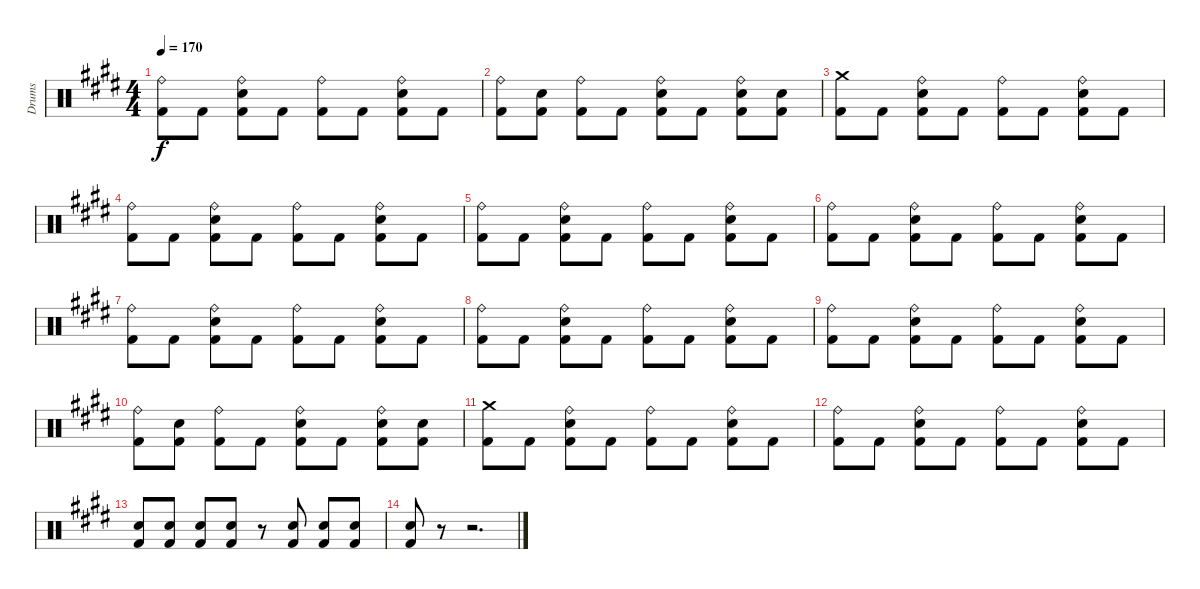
\track ("Drums" "Drums") {instrument percussion}
\staff {score}
\articulation defaults
\ts (4 4)
\tempo 170
\clef neutral
\ks c#minor
("Ride (bell)" "Kick (hit) 2").8{dy f} "Kick (hit) 2".8 ("Ride (bell)" "Electric Snare (hit)" "Kick (hit) 2").8 "Kick (hit) 2".8 ("Ride (bell)" "Kick (hit) 2").8 "Kick (hit) 2".8 ("Ride (bell)" "Electric Snare (hit)" "Kick (hit) 2").8 "Kick (hit) 2".8 |
("Ride (bell)" "Kick (hit) 2").8 ("Electric Snare (hit)" "Kick (hit) 2").8 ("Ride (bell)" "Kick (hit) 2").8 "Kick (hit) 2".8 ("Ride (bell)" "Electric Snare (hit)" "Kick (hit) 2").8 "Kick (hit) 2".8 ("Ride (bell)" "Electric Snare (hit)" "Kick (hit) 2").8 ("Electric Snare (hit)" "Kick (hit) 2").8 |
("Crash medium (hit)" "Kick (hit) 2").8 "Kick (hit) 2".8 ("Ride (bell)" "Electric Snare (hit)" "Kick (hit) 2").8 "Kick (hit) 2".8 ("Ride (bell)" "Kick (hit) 2").8 "Kick (hit) 2".8 ("Ride (bell)" "Electric Snare (hit)" "Kick (hit) 2").8 "Kick (hit) 2".8 |
("Ride (bell)" "Kick (hit) 2").8 "Kick (hit) 2".8 ("Ride (bell)" "Electric Snare (hit)" "Kick (hit) 2").8 "Kick (hit) 2".8 ("Ride (bell)" "Kick (hit) 2").8 "Kick (hit) 2".8 ("Ride (bell)" "Electric Snare (hit)" "Kick (hit) 2").8 "Kick (hit) 2".8 |
("Ride (bell)" "Kick (hit) 2").8 "Kick (hit) 2".8 ("Ride (bell)" "Electric Snare (hit)" "Kick (hit) 2").8 "Kick (hit) 2".8 ("Ride (bell)" "Kick (hit) 2").8 "Kick (hit) 2".8 ("Ride (bell)" "Electric Snare (hit)" "Kick (hit) 2").8 "Kick (hit) 2".8 |
("Ride (bell)" "Kick (hit) 2").8 "Kick (hit) 2".8 ("Ride (bell)" "Electric Snare (hit)" "Kick (hit) 2").8 "Kick (hit) 2".8 ("Ride (bell)" "Kick (hit) 2").8 "Kick (hit) 2".8 ("Ride (bell)" "Electric Snare (hit)" "Kick (hit) 2").8 "Kick (hit) 2".8 |
("Ride (bell)" "Kick (hit) 2").8 "Kick (hit) 2".8 ("Ride (bell)" "Electric Snare (hit)" "Kick (hit) 2").8 "Kick (hit) 2".8 ("Ride (bell)" "Kick (hit) 2").8 "Kick (hit) 2".8 ("Ride (bell)" "Electric Snare (hit)" "Kick (hit) 2").8 "Kick (hit) 2".8 |
("Ride (bell)" "Kick (hit) 2").8 "Kick (hit) 2".8 ("Ride (bell)" "Electric Snare (hit)" "Kick (hit) 2").8 "Kick (hit) 2".8 ("Ride (bell)" "Kick (hit) 2").8 "Kick (hit) 2".8 ("Ride (bell)" "Electric Snare (hit)" "Kick (hit) 2").8 "Kick (hit) 2".8 |
("Ride (bell)" "Kick (hit) 2").8 "Kick (hit) 2".8 ("Ride (bell)" "Electric Snare (hit)" "Kick (hit) 2").8 "Kick (hit) 2".8 ("Ride (bell)" "Kick (hit) 2").8 "Kick (hit) 2".8 ("Ride (bell)" "Electric Snare (hit)" "Kick (hit) 2").8 "Kick (hit) 2".8 |
("Ride (bell)" "Kick (hit) 2").8 ("Electric Snare (hit)" "Kick (hit) 2").8 ("Ride (bell)" "Kick (hit) 2").8 "Kick (hit) 2".8 ("Ride (bell)" "Electric Snare (hit)" "Kick (hit) 2").8 "Kick (hit) 2".8 ("Ride (bell)" "Electric Snare (hit)" "Kick (hit) 2").8 ("Electric Snare (hit)" "Kick (hit) 2").8 |
("Crash medium (hit)" "Kick (hit) 2").8 "Kick (hit) 2".8 ("Ride (bell)" "Electric Snare (hit)" "Kick (hit) 2").8 "Kick (hit) 2".8 ("Ride (bell)" "Kick (hit) 2").8 "Kick (hit) 2".8 ("Ride (bell)" "Electric Snare (hit)" "Kick (hit) 2").8 "Kick (hit) 2".8 |
("Ride (bell)" "Kick (hit) 2").8 "Kick (hit) 2".8 ("Ride (bell)" "Electric Snare (hit)" "Kick (hit) 2").8 "Kick (hit) 2".8 ("Ride (bell)" "Kick (hit) 2").8 "Kick (hit) 2".8 ("Ride (bell)" "Electric Snare (hit)" "Kick (hit) 2").8 "Kick (hit) 2".8 |
("Electric Snare (hit)" "Kick (hit) 2").8 ("Electric Snare (hit)" "Kick (hit) 2").8 ("Electric Snare (hit)" "Kick (hit) 2").8 ("Electric Snare (hit)" "Kick (hit) 2").8 r.8 ("Electric Snare (hit)" "Kick (hit) 2").8 ("Electric Snare (hit)" "Kick (hit) 2").8 ("Electric Snare (hit)" "Kick (hit) 2").8 |
("Electric Snare (hit)" "Kick (hit) 2").8 r.8 r.2{d}
